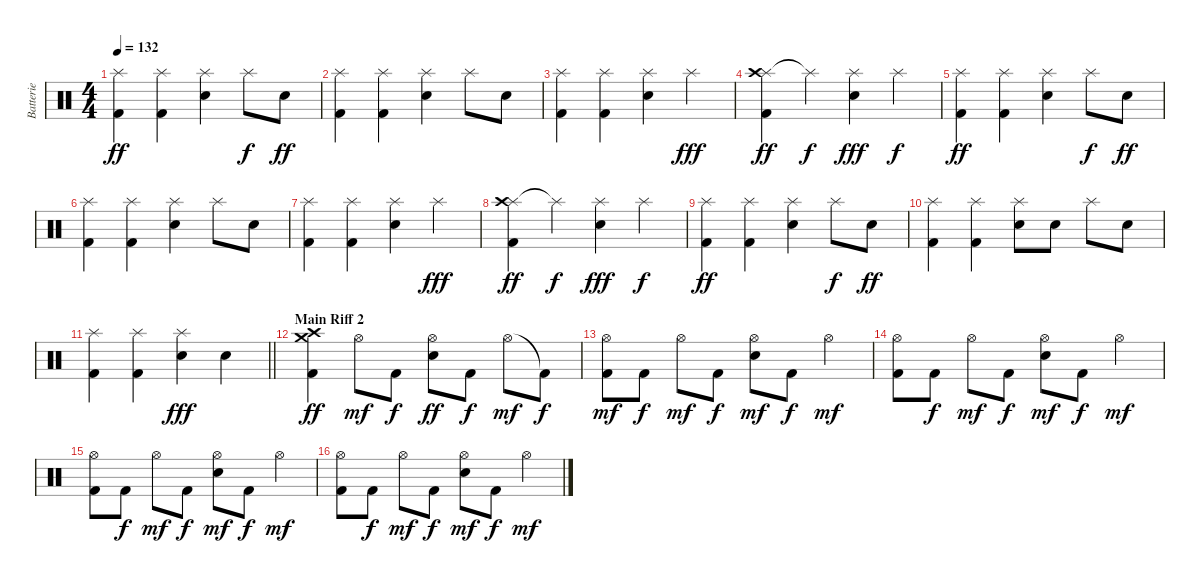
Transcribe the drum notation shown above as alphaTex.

\track ("Batterie" "Batterie") {instrument percussion}
\staff {score}
\articulation defaults
\ts (4 4)
\tempo 132
\clef neutral
\ks c
("Splash (hit)" "Kick (hit) 2").4{dy ff} ("Splash (hit)" "Kick (hit) 2").4 ("Splash (hit)" "Electric Snare (hit)").4 "Splash (hit)".8{dy f} "Electric Snare (hit)".8{dy ff} |
("Splash (hit)" "Kick (hit) 2").4 ("Splash (hit)" "Kick (hit) 2").4 ("Splash (hit)" "Electric Snare (hit)").4 "Splash (hit)".8 "Electric Snare (hit)".8 |
("Splash (hit)" "Kick (hit) 2").4 ("Splash (hit)" "Kick (hit) 2").4 ("Splash (hit)" "Electric Snare (hit)").4 "Splash (hit)".4{dy fff} |
("Splash (hit)" "Crash high (hit)" "Kick (hit) 2").4{dy ff} "Splash (hit)"{t}.4{dy f} ("Splash (hit)" "Electric Snare (hit)").4{dy fff} "Splash (hit)".4{dy f} |
("Splash (hit)" "Kick (hit) 2").4{dy ff} ("Splash (hit)" "Kick (hit) 2").4 ("Splash (hit)" "Electric Snare (hit)").4 "Splash (hit)".8{dy f} "Electric Snare (hit)".8{dy ff} |
("Splash (hit)" "Kick (hit) 2").4 ("Splash (hit)" "Kick (hit) 2").4 ("Splash (hit)" "Electric Snare (hit)").4 "Splash (hit)".8 "Electric Snare (hit)".8 |
("Splash (hit)" "Kick (hit) 2").4 ("Splash (hit)" "Kick (hit) 2").4 ("Splash (hit)" "Electric Snare (hit)").4 "Splash (hit)".4{dy fff} |
("Splash (hit)" "Crash high (hit)" "Kick (hit) 2").4{dy ff} "Splash (hit)"{t}.4{dy f} ("Splash (hit)" "Electric Snare (hit)").4{dy fff} "Splash (hit)".4{dy f} |
("Splash (hit)" "Kick (hit) 2").4{dy ff} ("Splash (hit)" "Kick (hit) 2").4 ("Splash (hit)" "Electric Snare (hit)").4 "Splash (hit)".8{dy f} "Electric Snare (hit)".8{dy ff} |
("Splash (hit)" "Kick (hit) 2").4 ("Splash (hit)" "Kick (hit) 2").4 ("Splash (hit)" "Electric Snare (hit)").8 "Electric Snare (hit)".8 "Splash (hit)".8 "Electric Snare (hit)".8 |
\barLineRight lightlight
("Splash (hit)" "Kick (hit) 2").4 ("Splash (hit)" "Kick (hit) 2").4 ("Splash (hit)" "Electric Snare (hit)").4{dy fff} "Electric Snare (hit)".4 |
\section ("" "Main Riff 2")
("Crash high (hit)" "Crash medium (hit)" "Kick (hit) 2").4{dy ff} "Hi-Hat (open)".8{dy mf} "Kick (hit) 2".8{dy f} ("Hi-Hat (open)" "Electric Snare (hit)").8{dy ff} "Kick (hit) 2".8{dy f} "Hi-Hat (open)".8{dy mf} "Kick (hit) 2"{t}.8{dy f} |
("Hi-Hat (open)" "Kick (hit) 2").8{dy mf} "Kick (hit) 2".8{dy f} "Hi-Hat (open)".8{dy mf} "Kick (hit) 2".8{dy f} ("Hi-Hat (open)" "Electric Snare (hit)").8{dy mf} "Kick (hit) 2".8{dy f} "Hi-Hat (open)".4{dy mf} |
("Hi-Hat (open)" "Kick (hit) 2").8 "Kick (hit) 2".8{dy f} "Hi-Hat (open)".8{dy mf} "Kick (hit) 2".8{dy f} ("Hi-Hat (open)" "Electric Snare (hit)").8{dy mf} "Kick (hit) 2".8{dy f} "Hi-Hat (open)".4{dy mf} |
("Hi-Hat (open)" "Kick (hit) 2").8 "Kick (hit) 2".8{dy f} "Hi-Hat (open)".8{dy mf} "Kick (hit) 2".8{dy f} ("Hi-Hat (open)" "Electric Snare (hit)").8{dy mf} "Kick (hit) 2".8{dy f} "Hi-Hat (open)".4{dy mf} |
("Hi-Hat (open)" "Kick (hit) 2").8 "Kick (hit) 2".8{dy f} "Hi-Hat (open)".8{dy mf} "Kick (hit) 2".8{dy f} ("Hi-Hat (open)" "Electric Snare (hit)").8{dy mf} "Kick (hit) 2".8{dy f} "Hi-Hat (open)".4{dy mf}
